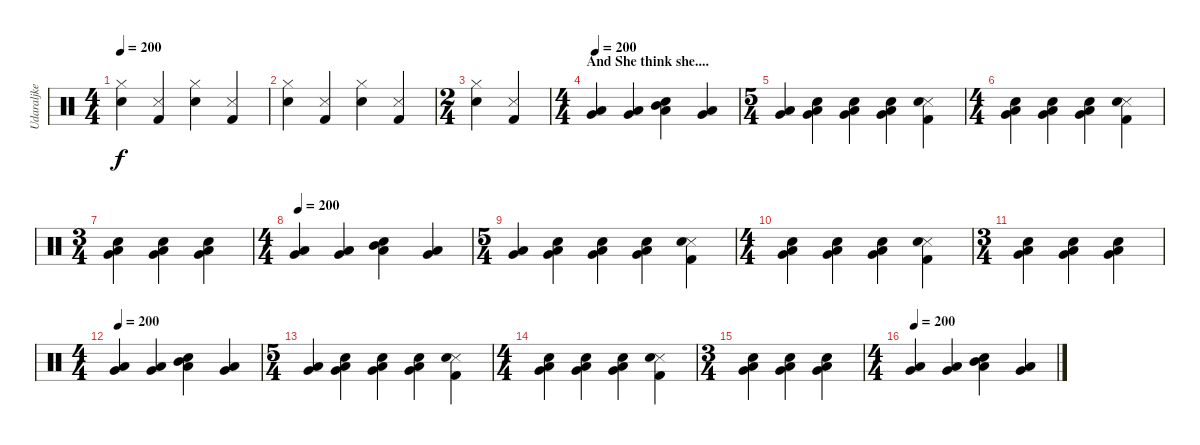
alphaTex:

\track ("Udaraljke" "Udaraljke") {instrument percussion}
\staff {score}
\articulation defaults
\ts (4 4)
\tempo 200
\clef neutral
\ks c
("Snare (hit) 2" "Hi-Hat (closed)").4{dy f} ("Kick (hit) 2" "Snare (side stick) 3").4 ("Snare (hit) 2" "Hi-Hat (closed)").4 ("Kick (hit) 2" "Snare (side stick) 3").4 |
("Snare (hit) 2" "Hi-Hat (closed)").4 ("Kick (hit) 2" "Snare (side stick) 3").4 ("Snare (hit) 2" "Hi-Hat (closed)").4 ("Kick (hit) 2" "Snare (side stick) 3").4 |
\ts (2 4)
("Snare (hit) 2" "Hi-Hat (closed)").4 ("Kick (hit) 2" "Snare (side stick) 3").4 |
\ts (4 4)
\section ("" "And She think she....")
\tempo 130
\tempo 205
\tempo 200
("Very Low Tom (hit)" "Low Tom (hit)").4{volume 10 balance 8} ("Very Low Tom (hit)" "Low Tom (hit)").4 ("Mid Tom (hit)" "Low Tom (hit)" "Snare (hit) 2").4 ("Very Low Tom (hit)" "Low Tom (hit)").4 |
\ts (5 4)
("Very Low Tom (hit)" "Low Tom (hit)").4 ("Very Low Tom (hit)" "Low Floor Tom (hit)" "Snare (hit) 2").4 ("Very Low Tom (hit)" "Low Floor Tom (hit)" "Snare (hit) 2").4 ("Very Low Tom (hit)" "Low Floor Tom (hit)" "Snare (hit) 2").4 ("Kick (hit) 2" "Metronome (hit)" "Snare (hit) 2").4 |
\ts (4 4)
("Very Low Tom (hit)" "Low Floor Tom (hit)" "Snare (hit) 2").4 ("Very Low Tom (hit)" "Low Floor Tom (hit)" "Snare (hit) 2").4 ("Very Low Tom (hit)" "Low Floor Tom (hit)" "Snare (hit) 2").4 ("Kick (hit) 2" "Metronome (hit)" "Snare (hit) 2").4 |
\ts (3 4)
("Very Low Tom (hit)" "Low Floor Tom (hit)" "Snare (hit) 2").4 ("Very Low Tom (hit)" "Low Floor Tom (hit)" "Snare (hit) 2").4 ("Very Low Tom (hit)" "Low Floor Tom (hit)" "Snare (hit) 2").4 |
\ts (4 4)
\tempo 200
("Very Low Tom (hit)" "Low Tom (hit)").4{volume 10 balance 8} ("Very Low Tom (hit)" "Low Tom (hit)").4 ("Mid Tom (hit)" "Low Tom (hit)" "Snare (hit) 2").4 ("Very Low Tom (hit)" "Low Tom (hit)").4 |
\ts (5 4)
("Very Low Tom (hit)" "Low Tom (hit)").4 ("Very Low Tom (hit)" "Low Floor Tom (hit)" "Snare (hit) 2").4 ("Very Low Tom (hit)" "Low Floor Tom (hit)" "Snare (hit) 2").4 ("Very Low Tom (hit)" "Low Floor Tom (hit)" "Snare (hit) 2").4 ("Kick (hit) 2" "Metronome (hit)" "Snare (hit) 2").4 |
\ts (4 4)
("Very Low Tom (hit)" "Low Floor Tom (hit)" "Snare (hit) 2").4 ("Very Low Tom (hit)" "Low Floor Tom (hit)" "Snare (hit) 2").4 ("Very Low Tom (hit)" "Low Floor Tom (hit)" "Snare (hit) 2").4 ("Kick (hit) 2" "Metronome (hit)" "Snare (hit) 2").4 |
\ts (3 4)
("Very Low Tom (hit)" "Low Floor Tom (hit)" "Snare (hit) 2").4 ("Very Low Tom (hit)" "Low Floor Tom (hit)" "Snare (hit) 2").4 ("Very Low Tom (hit)" "Low Floor Tom (hit)" "Snare (hit) 2").4 |
\ts (4 4)
\tempo 200
("Very Low Tom (hit)" "Low Tom (hit)").4{volume 10 balance 8} ("Very Low Tom (hit)" "Low Tom (hit)").4 ("Mid Tom (hit)" "Low Tom (hit)" "Snare (hit) 2").4 ("Very Low Tom (hit)" "Low Tom (hit)").4 |
\ts (5 4)
("Very Low Tom (hit)" "Low Tom (hit)").4 ("Very Low Tom (hit)" "Low Floor Tom (hit)" "Snare (hit) 2").4 ("Very Low Tom (hit)" "Low Floor Tom (hit)" "Snare (hit) 2").4 ("Very Low Tom (hit)" "Low Floor Tom (hit)" "Snare (hit) 2").4 ("Kick (hit) 2" "Metronome (hit)" "Snare (hit) 2").4 |
\ts (4 4)
("Very Low Tom (hit)" "Low Floor Tom (hit)" "Snare (hit) 2").4 ("Very Low Tom (hit)" "Low Floor Tom (hit)" "Snare (hit) 2").4 ("Very Low Tom (hit)" "Low Floor Tom (hit)" "Snare (hit) 2").4 ("Kick (hit) 2" "Metronome (hit)" "Snare (hit) 2").4 |
\ts (3 4)
("Very Low Tom (hit)" "Low Floor Tom (hit)" "Snare (hit) 2").4 ("Very Low Tom (hit)" "Low Floor Tom (hit)" "Snare (hit) 2").4 ("Very Low Tom (hit)" "Low Floor Tom (hit)" "Snare (hit) 2").4 |
\ts (4 4)
\tempo 200
("Very Low Tom (hit)" "Low Tom (hit)").4{volume 10 balance 8} ("Very Low Tom (hit)" "Low Tom (hit)").4 ("Mid Tom (hit)" "Low Tom (hit)" "Snare (hit) 2").4 ("Very Low Tom (hit)" "Low Tom (hit)").4
